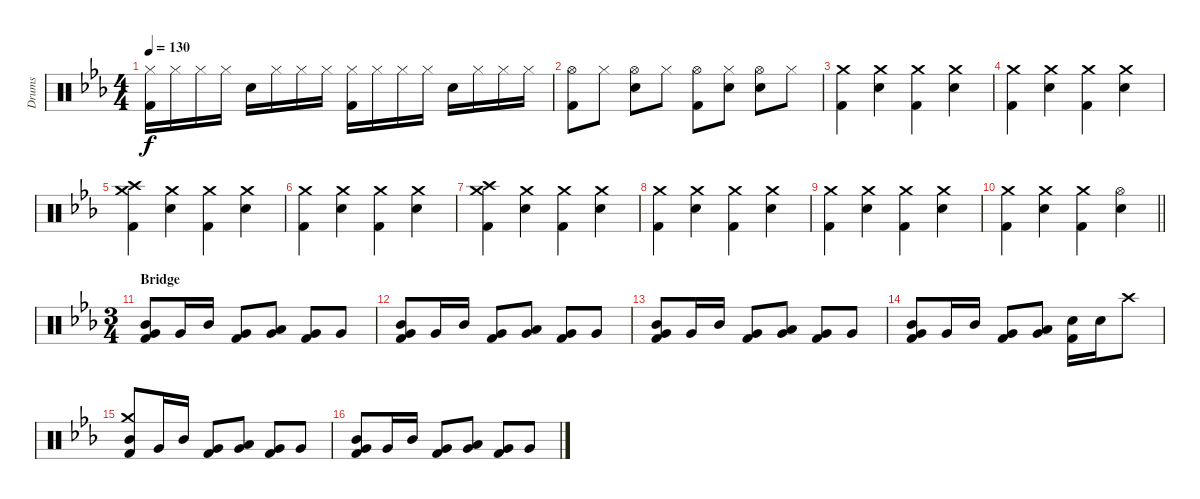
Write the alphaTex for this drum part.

\track ("Drums" "Drums") {instrument percussion}
\staff {score}
\articulation defaults
\ts (4 4)
\tempo 130
\clef neutral
\ks eb
("Hi-Hat (closed)" "Kick (hit) 2").16{dy f} "Hi-Hat (closed)".16 "Hi-Hat (closed)".16 "Hi-Hat (closed)".16 "Electric Snare (hit)".16 "Hi-Hat (closed)".16 "Hi-Hat (closed)".16 "Hi-Hat (closed)".16 ("Hi-Hat (closed)" "Kick (hit) 2").16 "Hi-Hat (closed)".16 "Hi-Hat (closed)".16 "Hi-Hat (closed)".16 "Electric Snare (hit)".16 "Hi-Hat (closed)".16 "Hi-Hat (closed)".16 "Hi-Hat (closed)".16 |
("Hi-Hat (open)" "Kick (hit) 2").8 "Hi-Hat (closed)".8 ("Hi-Hat (open)" "Electric Snare (hit)").8 "Hi-Hat (closed)".8 ("Hi-Hat (open)" "Kick (hit) 2").8 ("Hi-Hat (closed)" "Electric Snare (hit)").8 ("Hi-Hat (open)" "Electric Snare (hit)").8 "Hi-Hat (closed)".8 |
("Crash medium (hit)" "Kick (hit) 2").4 ("Crash medium (hit)" "Electric Snare (hit)").4 ("Crash medium (hit)" "Kick (hit) 2").4 ("Crash medium (hit)" "Electric Snare (hit)").4 |
("Crash medium (hit)" "Kick (hit) 2").4 ("Crash medium (hit)" "Electric Snare (hit)").4 ("Crash medium (hit)" "Kick (hit) 2").4 ("Crash medium (hit)" "Electric Snare (hit)").4 |
("Crash medium (hit)" "Kick (hit) 2" "Crash high (hit)").4 ("Crash medium (hit)" "Electric Snare (hit)").4 ("Crash medium (hit)" "Kick (hit) 2").4 ("Crash medium (hit)" "Electric Snare (hit)").4 |
("Crash medium (hit)" "Kick (hit) 2").4 ("Crash medium (hit)" "Electric Snare (hit)").4 ("Crash medium (hit)" "Kick (hit) 2").4 ("Crash medium (hit)" "Electric Snare (hit)").4 |
("Crash medium (hit)" "Kick (hit) 2" "Crash high (hit)").4 ("Crash medium (hit)" "Electric Snare (hit)").4 ("Crash medium (hit)" "Kick (hit) 2").4 ("Crash medium (hit)" "Electric Snare (hit)").4 |
("Crash medium (hit)" "Kick (hit) 2").4 ("Crash medium (hit)" "Electric Snare (hit)").4 ("Crash medium (hit)" "Kick (hit) 2").4 ("Crash medium (hit)" "Electric Snare (hit)").4 |
("Crash medium (hit)" "Kick (hit) 2").4 ("Crash medium (hit)" "Electric Snare (hit)").4 ("Crash medium (hit)" "Kick (hit) 2").4 ("Crash medium (hit)" "Electric Snare (hit)").4 |
\barLineRight lightlight
("Crash medium (hit)" "Kick (hit) 2").4 ("Crash medium (hit)" "Electric Snare (hit)").4 ("Crash medium (hit)" "Kick (hit) 2").4 ("Hi-Hat (open)" "Electric Snare (hit)").4 |
\ts (3 4)
\section ("" "Bridge")
("Kick (hit) 2" "Very Low Tom (hit)" "Mid Tom (hit)").8 "Very Low Tom (hit)".16 "Mid Tom (hit)".16 ("Kick (hit) 2" "Very Low Tom (hit)").8 ("Very Low Tom (hit)" "Low Tom (hit)").8 ("Kick (hit) 2" "Very Low Tom (hit)").8 "Very Low Tom (hit)".8 |
("Kick (hit) 2" "Very Low Tom (hit)" "Mid Tom (hit)").8 "Very Low Tom (hit)".16 "Mid Tom (hit)".16 ("Kick (hit) 2" "Very Low Tom (hit)").8 ("Very Low Tom (hit)" "Low Tom (hit)").8 ("Kick (hit) 2" "Very Low Tom (hit)").8 "Very Low Tom (hit)".8 |
("Kick (hit) 2" "Very Low Tom (hit)" "Mid Tom (hit)").8 "Very Low Tom (hit)".16 "Mid Tom (hit)".16 ("Kick (hit) 2" "Very Low Tom (hit)").8 ("Very Low Tom (hit)" "Low Tom (hit)").8 ("Kick (hit) 2" "Very Low Tom (hit)").8 "Very Low Tom (hit)".8 |
("Kick (hit) 2" "Very Low Tom (hit)" "Mid Tom (hit)").8 "Very Low Tom (hit)".16 "Mid Tom (hit)".16 ("Kick (hit) 2" "Very Low Tom (hit)").8 ("Very Low Tom (hit)" "Low Tom (hit)").8 ("Electric Snare (hit)" "Kick (hit) 2").16 "Electric Snare (hit)".16 "Crash high (hit)".8 |
("Crash medium (hit)" "Kick (hit) 2" "Mid Tom (hit)").8 "Very Low Tom (hit)".16 "Mid Tom (hit)".16 ("Kick (hit) 2" "Very Low Tom (hit)").8 ("Very Low Tom (hit)" "Low Tom (hit)").8 ("Kick (hit) 2" "Very Low Tom (hit)").8 "Very Low Tom (hit)".8 |
("Kick (hit) 2" "Very Low Tom (hit)" "Mid Tom (hit)").8 "Very Low Tom (hit)".16 "Mid Tom (hit)".16 ("Kick (hit) 2" "Very Low Tom (hit)").8 ("Very Low Tom (hit)" "Low Tom (hit)").8 ("Kick (hit) 2" "Very Low Tom (hit)").8 "Very Low Tom (hit)".8
